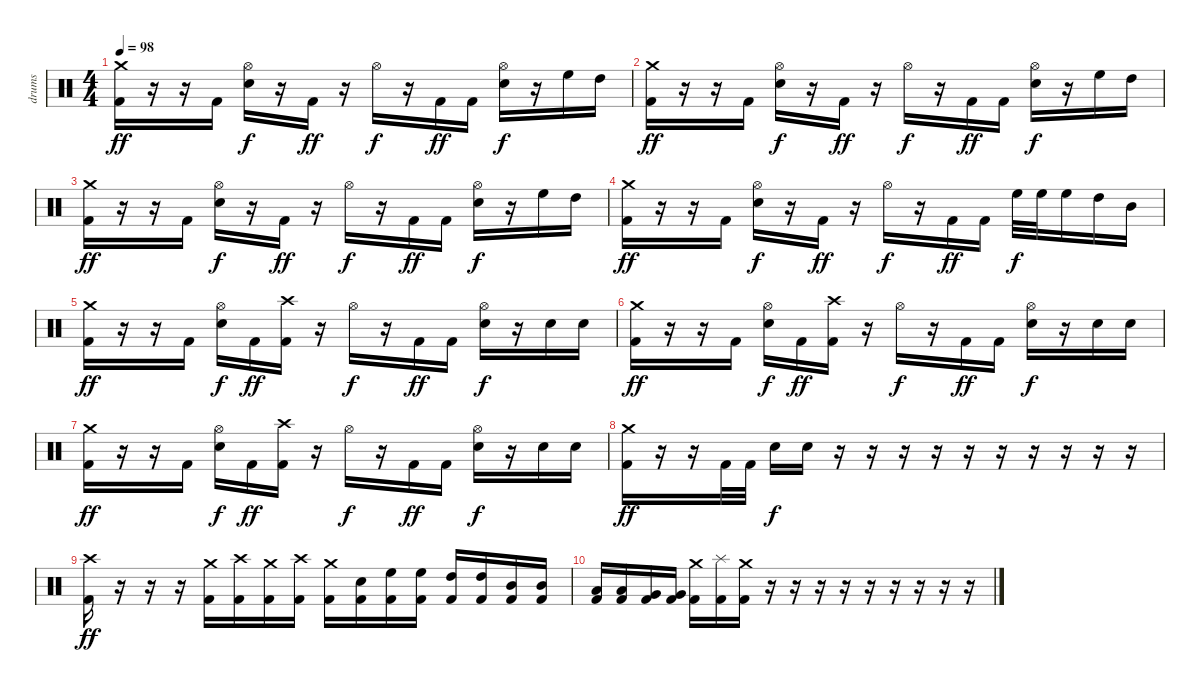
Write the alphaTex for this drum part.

\track ("drums" "drums") {instrument percussion}
\staff {score}
\articulation defaults
\ts (4 4)
\tempo 98
\clef neutral
\ks c
("Crash medium (hit)" "Kick (hit) 2").16{dy ff} r.16 r.16 "Kick (hit) 2".16 ("Hi-Hat (open)" "Electric Snare (hit)").16{dy f} r.16 "Kick (hit) 2".16{dy ff} r.16 "Hi-Hat (open)".16{dy f} r.16 "Kick (hit) 2".16{dy ff} "Kick (hit) 2".16 ("Hi-Hat (open)" "Electric Snare (hit)").16{dy f} r.16 "High Floor Tom (hit)".16 "High Tom (hit)".16 |
("Crash medium (hit)" "Kick (hit) 2").16{dy ff} r.16 r.16 "Kick (hit) 2".16 ("Hi-Hat (open)" "Electric Snare (hit)").16{dy f} r.16 "Kick (hit) 2".16{dy ff} r.16 "Hi-Hat (open)".16{dy f} r.16 "Kick (hit) 2".16{dy ff} "Kick (hit) 2".16 ("Hi-Hat (open)" "Electric Snare (hit)").16{dy f} r.16 "High Floor Tom (hit)".16 "High Tom (hit)".16 |
("Crash medium (hit)" "Kick (hit) 2").16{dy ff} r.16 r.16 "Kick (hit) 2".16 ("Hi-Hat (open)" "Electric Snare (hit)").16{dy f} r.16 "Kick (hit) 2".16{dy ff} r.16 "Hi-Hat (open)".16{dy f} r.16 "Kick (hit) 2".16{dy ff} "Kick (hit) 2".16 ("Hi-Hat (open)" "Electric Snare (hit)").16{dy f} r.16 "High Floor Tom (hit)".16 "High Tom (hit)".16 |
("Crash medium (hit)" "Kick (hit) 2").16{dy ff} r.16 r.16 "Kick (hit) 2".16 ("Hi-Hat (open)" "Electric Snare (hit)").16{dy f} r.16 "Kick (hit) 2".16{dy ff} r.16 "Hi-Hat (open)".16{dy f} r.16 "Kick (hit) 2".16{dy ff} "Kick (hit) 2".16 "High Floor Tom (hit)".32{dy f} "High Floor Tom (hit)".32 "High Floor Tom (hit)".16 "High Tom (hit)".16 "Mid Tom (hit)".16 |
("Crash medium (hit)" "Kick (hit) 2").16{dy ff} r.16 r.16 "Kick (hit) 2".16 ("Hi-Hat (open)" "Electric Snare (hit)").16{dy f} "Kick (hit) 2".16{dy ff} ("Crash high (hit)" "Kick (hit) 2").16 r.16 "Hi-Hat (open)".16{dy f} r.16 "Kick (hit) 2".16{dy ff} "Kick (hit) 2".16 ("Hi-Hat (open)" "Electric Snare (hit)").16{dy f} r.16 "Electric Snare (hit)".16 "Electric Snare (hit)".16 |
("Crash medium (hit)" "Kick (hit) 2").16{dy ff} r.16 r.16 "Kick (hit) 2".16 ("Hi-Hat (open)" "Electric Snare (hit)").16{dy f} "Kick (hit) 2".16{dy ff} ("Crash high (hit)" "Kick (hit) 2").16 r.16 "Hi-Hat (open)".16{dy f} r.16 "Kick (hit) 2".16{dy ff} "Kick (hit) 2".16 ("Hi-Hat (open)" "Electric Snare (hit)").16{dy f} r.16 "Electric Snare (hit)".16 "Electric Snare (hit)".16 |
("Crash medium (hit)" "Kick (hit) 2").16{dy ff} r.16 r.16 "Kick (hit) 2".16 ("Hi-Hat (open)" "Electric Snare (hit)").16{dy f} "Kick (hit) 2".16{dy ff} ("Crash high (hit)" "Kick (hit) 2").16 r.16 "Hi-Hat (open)".16{dy f} r.16 "Kick (hit) 2".16{dy ff} "Kick (hit) 2".16 ("Hi-Hat (open)" "Electric Snare (hit)").16{dy f} r.16 "Electric Snare (hit)".16 "Electric Snare (hit)".16 |
("Crash medium (hit)" "Kick (hit) 2").16{dy ff} r.16 r.16 "Kick (hit) 2".32 "Kick (hit) 2".32 "Electric Snare (hit)".16{dy f} "Electric Snare (hit)".16 r.16 r.16 r.16 r.16 r.16 r.16 r.16 r.16 r.16 r.16 |
("Crash high (hit)" "Kick (hit) 2").16{dy ff} r.16 r.16 r.16 ("Crash medium (hit)" "Kick (hit) 2").16 ("Crash high (hit)" "Kick (hit) 2").16 ("Crash medium (hit)" "Kick (hit) 2").16 ("Crash high (hit)" "Kick (hit) 2").16 ("Crash medium (hit)" "Kick (hit) 2").16 ("Electric Snare (hit)" "Kick (hit) 2").16 ("High Floor Tom (hit)" "Kick (hit) 2").16 ("High Floor Tom (hit)" "Kick (hit) 2").16 ("High Tom (hit)" "Kick (hit) 2").16 ("High Tom (hit)" "Kick (hit) 2").16 ("Mid Tom (hit)" "Kick (hit) 2").16 ("Mid Tom (hit)" "Kick (hit) 2").16 |
("Low Tom (hit)" "Kick (hit) 2").16 ("Low Tom (hit)" "Kick (hit) 2").16 ("Very Low Tom (hit)" "Kick (hit) 2").16 ("Very Low Tom (hit)" "Kick (hit) 2").16 ("Crash medium (hit)" "Kick (hit) 2").16 ("Splash (hit)" "Kick (hit) 2").16 ("Crash medium (hit)" "Kick (hit) 2").16 r.16 r.16 r.16 r.16 r.16 r.16 r.16 r.16 r.16
